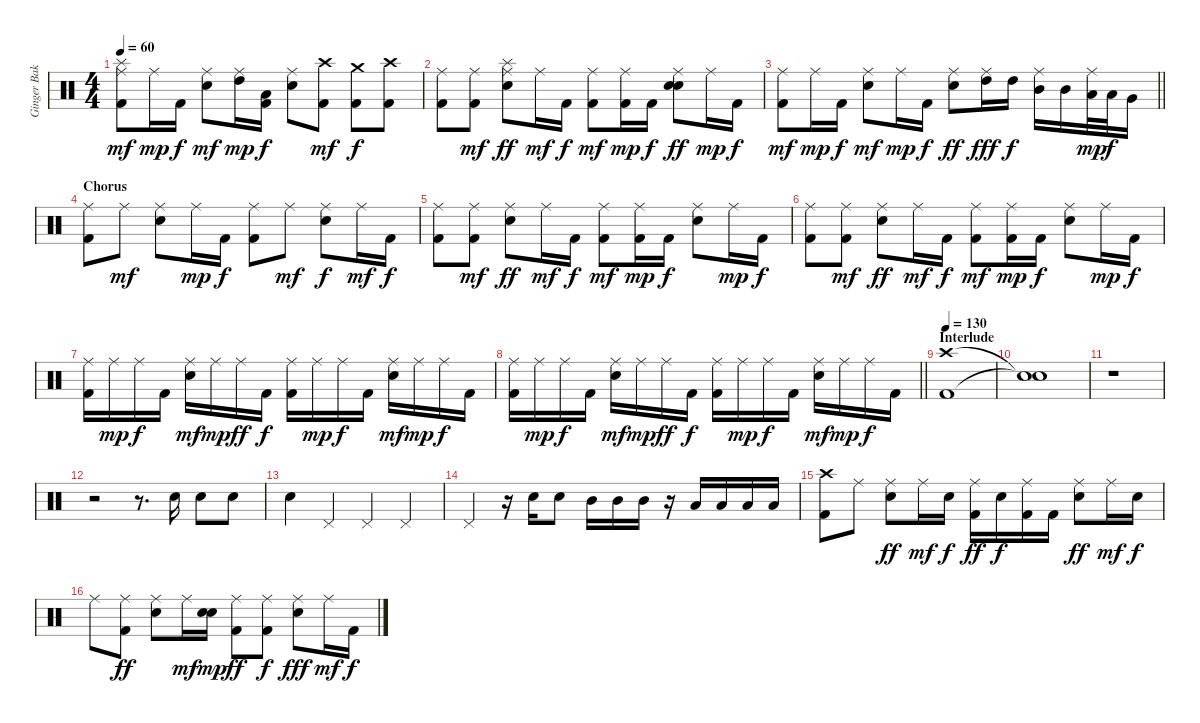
\track ("Ginger Baker (Drums)" "Ginger Bak") {instrument percussion}
\staff {score}
\articulation defaults
\ts (4 4)
\tempo 60
\clef neutral
\ks c
("Splash (hit)" "Ride (middle)" "Kick (hit) 2").8{dy mf} "Ride (middle)".16{dy mp} "Kick (hit) 2".16{dy f} ("Ride (middle)" "Snare (hit) 2").8{dy mf} ("Ride (middle)" "High Tom (hit)").16{dy mp} ("Low Tom (hit)" "Kick (hit) 2").16{dy f} ("Ride (middle)" "Snare (hit) 2").8 ("Crash high (hit)" "Kick (hit) 2").8{dy mf} ("Crash medium (hit)" "Kick (hit) 2").8{dy f} ("Crash high (hit)" "Kick (hit) 2").8 |
("Ride (middle)" "Kick (hit) 2").8 ("Ride (middle)" "Kick (hit) 2").8{dy mf} ("Ride (middle)" "Splash (hit)" "Snare (hit) 2").8{dy ff} "Ride (middle)".16{dy mf} "Kick (hit) 2".16{dy f} ("Ride (middle)" "Kick (hit) 2").8{dy mf} ("Ride (middle)" "Kick (hit) 2").16{dy mp} "Kick (hit) 2".16{dy f} ("Ride (middle)" "Snare (hit) 2" "Electric Snare (hit)").8{dy ff} "Ride (middle)".16{dy mp} "Kick (hit) 2".16{dy f} |
\barLineRight lightlight
("Ride (middle)" "Kick (hit) 2").8{dy mf} "Ride (middle)".16{dy mp} "Kick (hit) 2".16{dy f} ("Ride (middle)" "Snare (hit) 2").8{dy mf} "Ride (middle)".16{dy mp} "Kick (hit) 2".16{dy f} ("Ride (middle)" "Snare (hit) 2").8{dy ff} ("Ride (middle)" "High Tom (hit)").16{dy fff} "High Tom (hit)".16{dy f} ("Ride (middle)" "Mid Tom (hit)").16 "Mid Tom (hit)".16 ("Ride (middle)" "Low Tom (hit)").32{dy mp} "Low Tom (hit)".32{dy f} "Very Low Tom (hit)".16 |
\section ("" "Chorus")
("Ride (middle)" "Kick (hit) 2").8 "Ride (middle)".8{dy mf} ("Ride (middle)" "Snare (hit) 2").8 "Ride (middle)".16{dy mp} "Kick (hit) 2".16{dy f} ("Ride (middle)" "Kick (hit) 2").8 "Ride (middle)".8{dy mf} ("Ride (middle)" "Snare (hit) 2").8{dy f} "Ride (middle)".16{dy mf} "Kick (hit) 2".16{dy f} |
("Ride (middle)" "Kick (hit) 2").8 ("Ride (middle)" "Kick (hit) 2").8{dy mf} ("Ride (middle)" "Snare (hit) 2").8{dy ff} "Ride (middle)".16{dy mf} "Kick (hit) 2".16{dy f} ("Ride (middle)" "Kick (hit) 2").8{dy mf} ("Ride (middle)" "Kick (hit) 2").16{dy mp} "Kick (hit) 2".16{dy f} ("Ride (middle)" "Snare (hit) 2").8 "Ride (middle)".16{dy mp} "Kick (hit) 2".16{dy f} |
("Ride (middle)" "Kick (hit) 2").8 ("Ride (middle)" "Kick (hit) 2").8{dy mf} ("Ride (middle)" "Snare (hit) 2").8{dy ff} "Ride (middle)".16{dy mf} "Kick (hit) 2".16{dy f} ("Ride (middle)" "Kick (hit) 2").8{dy mf} ("Ride (middle)" "Kick (hit) 2").16{dy mp} "Kick (hit) 2".16{dy f} ("Ride (middle)" "Snare (hit) 2").8 "Ride (middle)".16{dy mp} "Kick (hit) 2".16{dy f} |
("Ride (middle)" "Kick (hit) 2").16 "Ride (middle)".16{dy mp} "Ride (middle)".16{dy f} "Kick (hit) 2".16 ("Ride (middle)" "Snare (hit) 2").16{dy mf} "Ride (middle)".16{dy mp} "Ride (middle)".16{dy ff} "Kick (hit) 2".16{dy f} ("Ride (middle)" "Kick (hit) 2").16 "Ride (middle)".16{dy mp} "Ride (middle)".16{dy f} "Kick (hit) 2".16 ("Ride (middle)" "Snare (hit) 2").16{dy mf} "Ride (middle)".16{dy mp} "Ride (middle)".16{dy f} "Kick (hit) 2".16 |
\barLineRight lightlight
("Ride (middle)" "Kick (hit) 2").16 "Ride (middle)".16{dy mp} "Ride (middle)".16{dy f} "Kick (hit) 2".16 ("Ride (middle)" "Snare (hit) 2").16{dy mf} "Ride (middle)".16{dy mp} "Ride (middle)".16{dy ff} "Kick (hit) 2".16{dy f} ("Ride (middle)" "Kick (hit) 2").16 "Ride (middle)".16{dy mp} "Ride (middle)".16{dy f} "Kick (hit) 2".16 ("Ride (middle)" "Snare (hit) 2").16{dy mf} "Ride (middle)".16{dy mp} "Ride (middle)".16{dy f} "Kick (hit) 2".16 |
\section ("" "Interlude")
\tempo 130
("Crash high (hit)" "Kick (hit) 2").1 |
("Snare (hit)"{t} "Snare (hit)"{t}).1 |
r.1 |
r.2 r.8{d} "Snare (hit) 2".16 "Snare (hit) 2".8 "Snare (hit) 2".8 |
"Snare (hit) 2".4 "Pedal Hi-Hat (hit)".4 "Pedal Hi-Hat (hit)".4 "Pedal Hi-Hat (hit)".4 |
"Pedal Hi-Hat (hit)".4 r.16 "Snare (hit) 2".16 "Snare (hit) 2".8 "Mid Tom (hit)".16 "Mid Tom (hit)".16 "Mid Tom (hit)".16 r.16 "Low Tom (hit)".16 "Low Tom (hit)".16 "Low Tom (hit)".16 "Low Tom (hit)".16 |
("Crash high (hit)" "Kick (hit) 2").8 "Ride (middle)".8 ("Ride (middle)" "Snare (hit) 2").8{dy ff} "Ride (middle)".16{dy mf} "Snare (hit) 2".16{dy f} ("Ride (middle)" "Kick (hit) 2").16{dy ff} "Snare (hit) 2".16{dy f} ("Ride (middle)" "Kick (hit) 2").16 "Kick (hit) 2".16 ("Ride (middle)" "Snare (hit) 2").8{dy ff} "Ride (middle)".16{dy mf} "Snare (hit) 2".16{dy f} |
"Ride (middle)".8 ("Ride (middle)" "Kick (hit) 2").8{dy ff} ("Ride (middle)" "Snare (hit) 2").8 "Ride (middle)".16{dy mf} ("Snare (hit) 2" "Electric Snare (hit)").16{dy mp} ("Ride (middle)" "Kick (hit) 2").8{dy ff} ("Ride (middle)" "Kick (hit) 2").8{dy f} ("Ride (middle)" "Snare (hit) 2").8{dy fff} "Ride (middle)".16{dy mf} "Kick (hit) 2".16{dy f}
